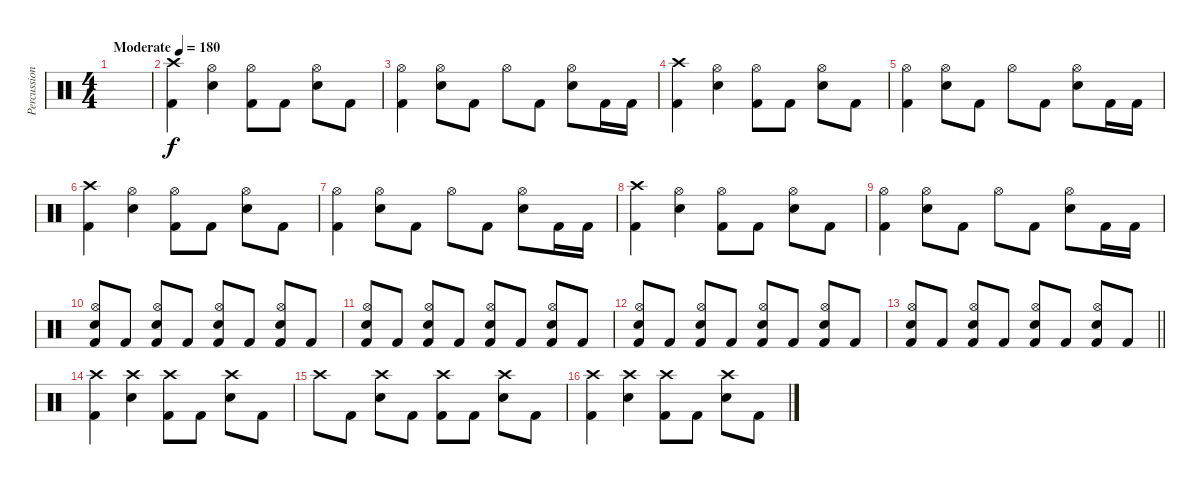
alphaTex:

\track ("Percussion" "Percussion") {instrument percussion}
\staff {score}
\articulation defaults
\ts (4 4)
\tempo (180 "Moderate")
\clef neutral
\ks c
|
("Crash high (hit)" "Kick (hit) 2").4 ("Hi-Hat (open)" "Snare (hit) 2").4 ("Hi-Hat (open)" "Kick (hit) 2").8 "Kick (hit) 2".8 ("Hi-Hat (open)" "Snare (hit) 2").8 "Kick (hit) 2".8 |
("Hi-Hat (open)" "Kick (hit) 2").4 ("Hi-Hat (open)" "Snare (hit) 2").8 "Kick (hit) 2".8 "Hi-Hat (open)".8 "Kick (hit) 2".8 ("Hi-Hat (open)" "Snare (hit) 2").8 "Kick (hit) 2".16 "Kick (hit) 2".16 |
("Crash high (hit)" "Kick (hit) 2").4 ("Hi-Hat (open)" "Snare (hit) 2").4 ("Hi-Hat (open)" "Kick (hit) 2").8 "Kick (hit) 2".8 ("Hi-Hat (open)" "Snare (hit) 2").8 "Kick (hit) 2".8 |
("Hi-Hat (open)" "Kick (hit) 2").4 ("Hi-Hat (open)" "Snare (hit) 2").8 "Kick (hit) 2".8 "Hi-Hat (open)".8 "Kick (hit) 2".8 ("Hi-Hat (open)" "Snare (hit) 2").8 "Kick (hit) 2".16 "Kick (hit) 2".16 |
("Crash high (hit)" "Kick (hit) 2").4 ("Hi-Hat (open)" "Snare (hit) 2").4 ("Hi-Hat (open)" "Kick (hit) 2").8 "Kick (hit) 2".8 ("Hi-Hat (open)" "Snare (hit) 2").8 "Kick (hit) 2".8 |
("Hi-Hat (open)" "Kick (hit) 2").4 ("Hi-Hat (open)" "Snare (hit) 2").8 "Kick (hit) 2".8 "Hi-Hat (open)".8 "Kick (hit) 2".8 ("Hi-Hat (open)" "Snare (hit) 2").8 "Kick (hit) 2".16 "Kick (hit) 2".16 |
("Crash high (hit)" "Kick (hit) 2").4 ("Hi-Hat (open)" "Snare (hit) 2").4 ("Hi-Hat (open)" "Kick (hit) 2").8 "Kick (hit) 2".8 ("Hi-Hat (open)" "Snare (hit) 2").8 "Kick (hit) 2".8 |
("Hi-Hat (open)" "Kick (hit) 2").4 ("Hi-Hat (open)" "Snare (hit) 2").8 "Kick (hit) 2".8 "Hi-Hat (open)".8 "Kick (hit) 2".8 ("Hi-Hat (open)" "Snare (hit) 2").8 "Kick (hit) 2".16 "Kick (hit) 2".16 |
("Hi-Hat (open)" "Snare (hit) 2" "Kick (hit) 2").8 "Kick (hit) 2".8 ("Hi-Hat (open)" "Snare (hit) 2" "Kick (hit) 2").8 "Kick (hit) 2".8 ("Hi-Hat (open)" "Snare (hit) 2" "Kick (hit) 2").8 "Kick (hit) 2".8 ("Hi-Hat (open)" "Snare (hit) 2" "Kick (hit) 2").8 "Kick (hit) 2".8 |
("Hi-Hat (open)" "Snare (hit) 2" "Kick (hit) 2").8 "Kick (hit) 2".8 ("Hi-Hat (open)" "Snare (hit) 2" "Kick (hit) 2").8 "Kick (hit) 2".8 ("Hi-Hat (open)" "Snare (hit) 2" "Kick (hit) 2").8 "Kick (hit) 2".8 ("Hi-Hat (open)" "Snare (hit) 2" "Kick (hit) 2").8 "Kick (hit) 2".8 |
("Hi-Hat (open)" "Snare (hit) 2" "Kick (hit) 2").8 "Kick (hit) 2".8 ("Hi-Hat (open)" "Snare (hit) 2" "Kick (hit) 2").8 "Kick (hit) 2".8 ("Hi-Hat (open)" "Snare (hit) 2" "Kick (hit) 2").8 "Kick (hit) 2".8 ("Hi-Hat (open)" "Snare (hit) 2" "Kick (hit) 2").8 "Kick (hit) 2".8 |
\barLineRight lightlight
("Hi-Hat (open)" "Snare (hit) 2" "Kick (hit) 2").8 "Kick (hit) 2".8 ("Hi-Hat (open)" "Snare (hit) 2" "Kick (hit) 2").8 "Kick (hit) 2".8 ("Hi-Hat (open)" "Snare (hit) 2" "Kick (hit) 2").8 "Kick (hit) 2".8 ("Hi-Hat (open)" "Snare (hit) 2" "Kick (hit) 2").8 "Kick (hit) 2".8 |
\section ("" "")
("Crash high (hit)" "Kick (hit) 2").4 ("Crash high (hit)" "Snare (hit) 2").4 ("Crash high (hit)" "Kick (hit) 2").8 "Kick (hit) 2".8 ("Crash high (hit)" "Snare (hit) 2").8 "Kick (hit) 2".8 |
"Crash high (hit)".8 "Kick (hit) 2".8 ("Crash high (hit)" "Snare (hit) 2").8 "Kick (hit) 2".8 ("Crash high (hit)" "Kick (hit) 2").8 "Kick (hit) 2".8 ("Crash high (hit)" "Snare (hit) 2").8 "Kick (hit) 2".8 |
("Crash high (hit)" "Kick (hit) 2").4 ("Crash high (hit)" "Snare (hit) 2").4 ("Crash high (hit)" "Kick (hit) 2").8 "Kick (hit) 2".8 ("Crash high (hit)" "Snare (hit) 2").8 "Kick (hit) 2".8
